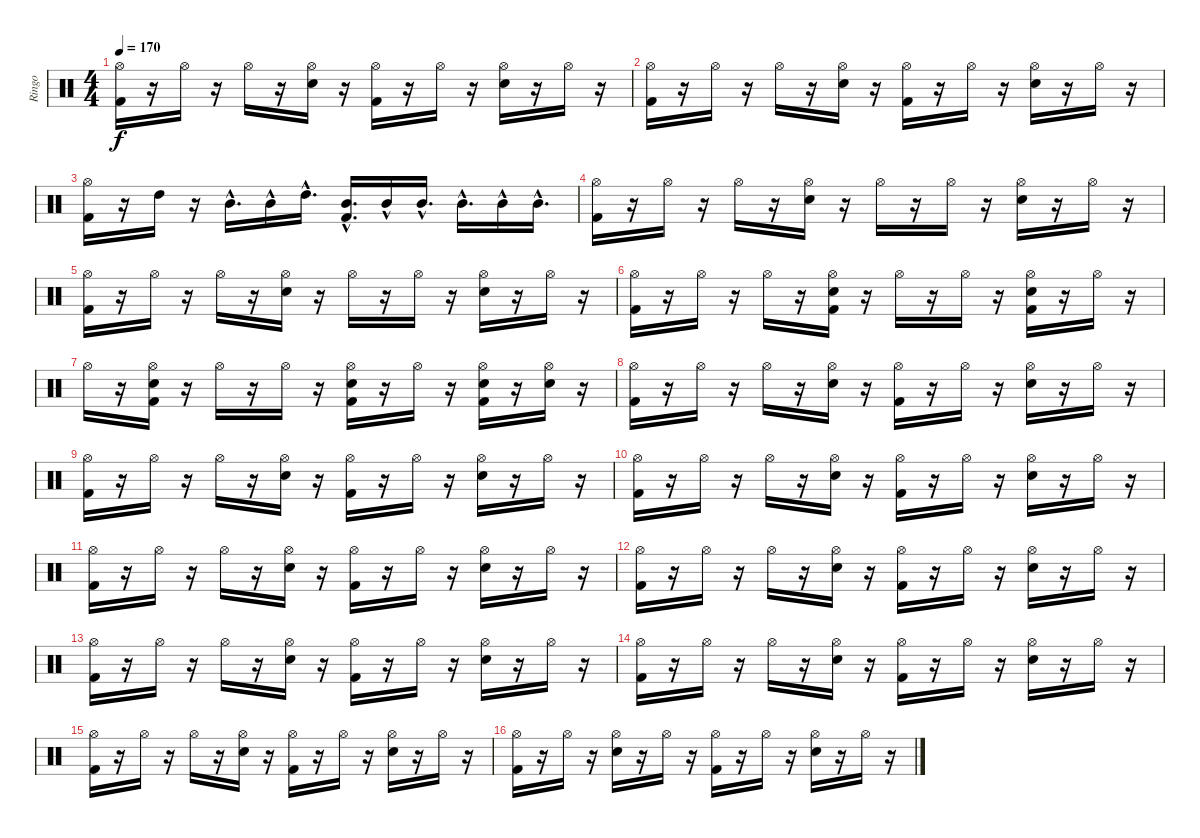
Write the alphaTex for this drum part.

\track ("Ringo" "Ringo") {instrument percussion}
\staff {score}
\articulation defaults
\ts (4 4)
\tempo 170
\clef neutral
\ks c
("Hi-Hat (open)" "Kick (hit) 2").16{dy f} r.16 "Hi-Hat (open)".16 r.16 "Hi-Hat (open)".16 r.16 ("Hi-Hat (open)" "Snare (hit) 2").16 r.16 ("Hi-Hat (open)" "Kick (hit) 2").16 r.16 "Hi-Hat (open)".16 r.16 ("Hi-Hat (open)" "Snare (hit) 2").16 r.16 "Hi-Hat (open)".16 r.16 |
("Hi-Hat (open)" "Kick (hit) 2").16 r.16 "Hi-Hat (open)".16 r.16 "Hi-Hat (open)".16 r.16 ("Hi-Hat (open)" "Snare (hit) 2").16 r.16 ("Hi-Hat (open)" "Kick (hit) 2").16 r.16 "Hi-Hat (open)".16 r.16 ("Hi-Hat (open)" "Snare (hit) 2").16 r.16 "Hi-Hat (open)".16 r.16 |
("Hi-Hat (open)" "Kick (hit) 2").16 r.16 "High Tom (hit)".16 r.16 "Mid Tom (hit)"{hac}.16{d} "Mid Tom (hit)"{hac}.16 "High Tom (hit)"{hac}.16{d} ("Kick (hit) 2"{hac} "Mid Tom (hit)"{hac}).16{d} "Mid Tom (hit)"{hac}.16 "Mid Tom (hit)"{hac}.16{d} "Mid Tom (hit)"{hac}.16{d} "Mid Tom (hit)"{hac}.16 "Mid Tom (hit)"{hac}.16{d} |
("Hi-Hat (open)" "Kick (hit) 2").16 r.16 "Hi-Hat (open)".16 r.16 "Hi-Hat (open)".16 r.16 ("Hi-Hat (open)" "Snare (hit) 2").16 r.16 "Hi-Hat (open)".16 r.16 "Hi-Hat (open)".16 r.16 ("Hi-Hat (open)" "Snare (hit) 2").16 r.16 "Hi-Hat (open)".16 r.16 |
("Hi-Hat (open)" "Kick (hit) 2").16 r.16 "Hi-Hat (open)".16 r.16 "Hi-Hat (open)".16 r.16 ("Hi-Hat (open)" "Snare (hit) 2").16 r.16 "Hi-Hat (open)".16 r.16 "Hi-Hat (open)".16 r.16 ("Hi-Hat (open)" "Snare (hit) 2").16 r.16 "Hi-Hat (open)".16 r.16 |
("Hi-Hat (open)" "Kick (hit) 2").16 r.16 "Hi-Hat (open)".16 r.16 "Hi-Hat (open)".16 r.16 ("Hi-Hat (open)" "Kick (hit) 2" "Snare (hit) 2").16 r.16 "Hi-Hat (open)".16 r.16 "Hi-Hat (open)".16 r.16 ("Hi-Hat (open)" "Kick (hit) 2" "Snare (hit) 2").16 r.16 "Hi-Hat (open)".16 r.16 |
"Hi-Hat (open)".16 r.16 ("Hi-Hat (open)" "Snare (hit) 2" "Kick (hit) 2").16 r.16 "Hi-Hat (open)".16 r.16 "Hi-Hat (open)".16 r.16 ("Hi-Hat (open)" "Snare (hit) 2" "Kick (hit) 2").16 r.16 "Hi-Hat (open)".16 r.16 ("Hi-Hat (open)" "Snare (hit) 2" "Kick (hit) 2").16 r.16 ("Hi-Hat (open)" "Snare (hit) 2").16 r.16 |
("Hi-Hat (open)" "Kick (hit) 2").16 r.16 "Hi-Hat (open)".16 r.16 "Hi-Hat (open)".16 r.16 ("Hi-Hat (open)" "Snare (hit) 2").16 r.16 ("Hi-Hat (open)" "Kick (hit) 2").16 r.16 "Hi-Hat (open)".16 r.16 ("Hi-Hat (open)" "Snare (hit) 2").16 r.16 "Hi-Hat (open)".16 r.16 |
("Hi-Hat (open)" "Kick (hit) 2").16 r.16 "Hi-Hat (open)".16 r.16 "Hi-Hat (open)".16 r.16 ("Hi-Hat (open)" "Snare (hit) 2").16 r.16 ("Hi-Hat (open)" "Kick (hit) 2").16 r.16 "Hi-Hat (open)".16 r.16 ("Hi-Hat (open)" "Snare (hit) 2").16 r.16 "Hi-Hat (open)".16 r.16 |
("Hi-Hat (open)" "Kick (hit) 2").16 r.16 "Hi-Hat (open)".16 r.16 "Hi-Hat (open)".16 r.16 ("Hi-Hat (open)" "Snare (hit) 2").16 r.16 ("Hi-Hat (open)" "Kick (hit) 2").16 r.16 "Hi-Hat (open)".16 r.16 ("Hi-Hat (open)" "Snare (hit) 2").16 r.16 "Hi-Hat (open)".16 r.16 |
("Hi-Hat (open)" "Kick (hit) 2").16 r.16 "Hi-Hat (open)".16 r.16 "Hi-Hat (open)".16 r.16 ("Hi-Hat (open)" "Snare (hit) 2").16 r.16 ("Hi-Hat (open)" "Kick (hit) 2").16 r.16 "Hi-Hat (open)".16 r.16 ("Hi-Hat (open)" "Snare (hit) 2").16 r.16 "Hi-Hat (open)".16 r.16 |
("Kick (hit) 2" "Hi-Hat (open)").16 r.16 "Hi-Hat (open)".16 r.16 "Hi-Hat (open)".16 r.16 ("Snare (hit) 2" "Hi-Hat (open)").16 r.16 ("Kick (hit) 2" "Hi-Hat (open)").16 r.16 "Hi-Hat (open)".16 r.16 ("Snare (hit) 2" "Hi-Hat (open)").16 r.16 "Hi-Hat (open)".16 r.16 |
("Kick (hit) 2" "Hi-Hat (open)").16 r.16 "Hi-Hat (open)".16 r.16 "Hi-Hat (open)".16 r.16 ("Snare (hit) 2" "Hi-Hat (open)").16 r.16 ("Kick (hit) 2" "Hi-Hat (open)").16 r.16 "Hi-Hat (open)".16 r.16 ("Snare (hit) 2" "Hi-Hat (open)").16 r.16 "Hi-Hat (open)".16 r.16 |
("Kick (hit) 2" "Hi-Hat (open)").16 r.16 "Hi-Hat (open)".16 r.16 "Hi-Hat (open)".16 r.16 ("Snare (hit) 2" "Hi-Hat (open)").16 r.16 ("Kick (hit) 2" "Hi-Hat (open)").16 r.16 "Hi-Hat (open)".16 r.16 ("Snare (hit) 2" "Hi-Hat (open)").16 r.16 "Hi-Hat (open)".16 r.16 |
("Kick (hit) 2" "Hi-Hat (open)").16 r.16 "Hi-Hat (open)".16 r.16 "Hi-Hat (open)".16 r.16 ("Snare (hit) 2" "Hi-Hat (open)").16 r.16 ("Kick (hit) 2" "Hi-Hat (open)").16 r.16 "Hi-Hat (open)".16 r.16 ("Snare (hit) 2" "Hi-Hat (open)").16 r.16 "Hi-Hat (open)".16 r.16 |
("Hi-Hat (open)" "Kick (hit) 2").16 r.16 "Hi-Hat (open)".16 r.16 ("Hi-Hat (open)" "Snare (hit) 2").16 r.16 "Hi-Hat (open)".16 r.16 ("Hi-Hat (open)" "Kick (hit) 2").16 r.16 "Hi-Hat (open)".16 r.16 ("Hi-Hat (open)" "Snare (hit) 2").16 r.16 "Hi-Hat (open)".16 r.16
